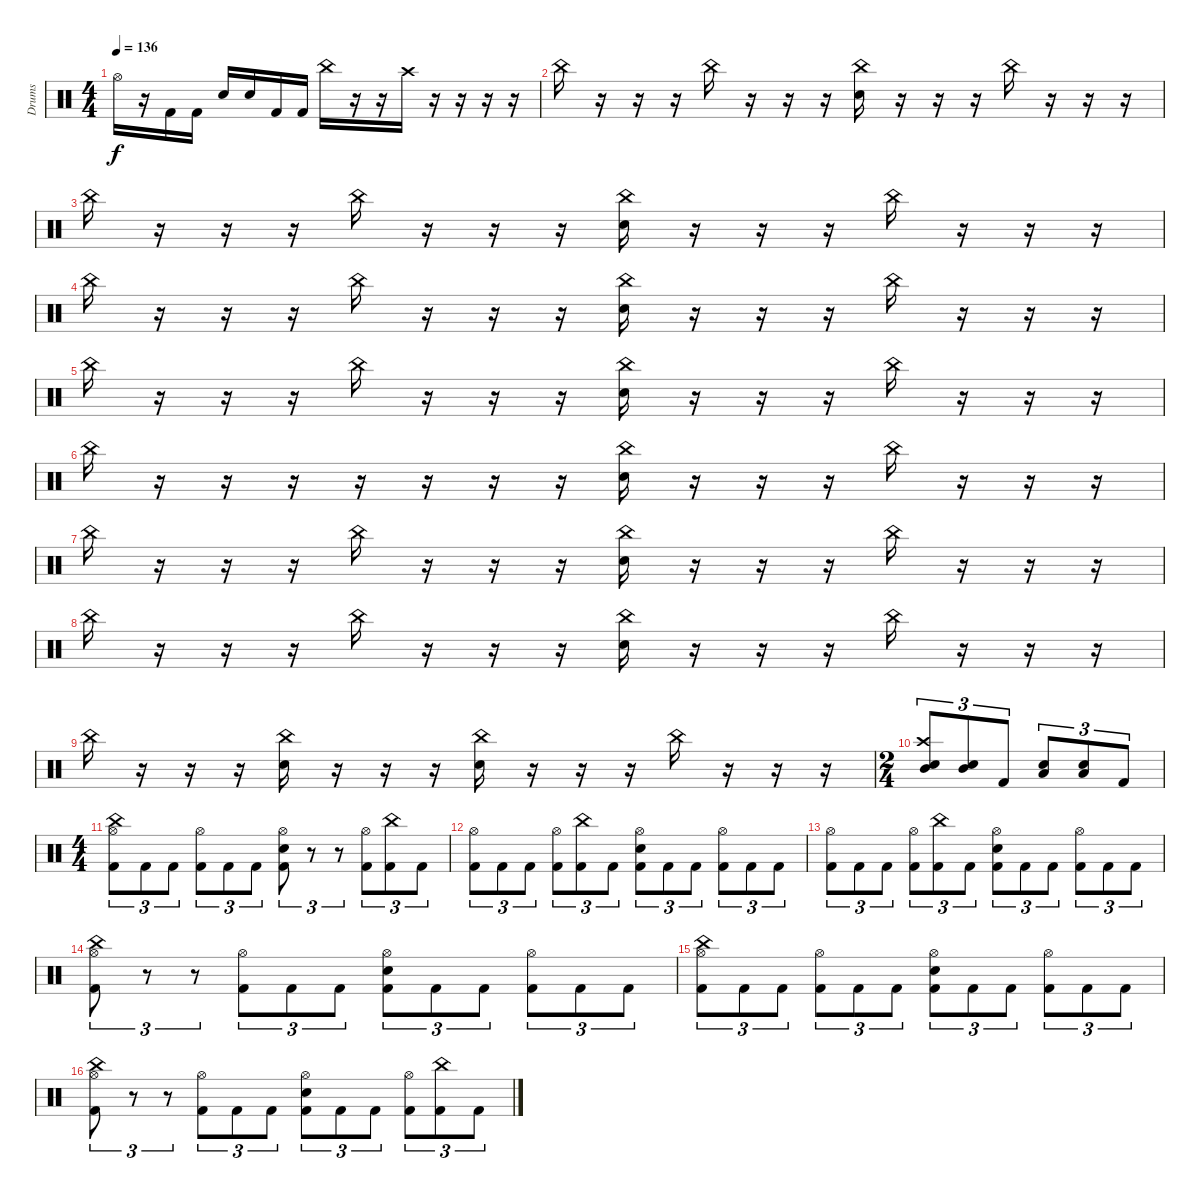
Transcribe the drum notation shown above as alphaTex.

\track ("Drums" "Drums") {instrument percussion}
\staff {score}
\articulation defaults
\ts (4 4)
\tempo 136
\clef neutral
\ks c "Hi-Hat (open)".16{dy f}
r.16 "Kick (hit) 2".16 "Kick (hit) 2".16 "Electric Snare (hit)".16 "Electric Snare (hit)".16 "Kick (hit) 2".16 "Kick (hit) 2".16 "China (hit)".16 r.16 r.16 "Crash high (hit)".16 r.16 r.16 r.16 r.16 |
"China (hit)".16 r.16 r.16 r.16 "China (hit)".16 r.16 r.16 r.16 ("China (hit)" "Electric Snare (hit)").16 r.16 r.16 r.16 "China (hit)".16 r.16 r.16 r.16 |
"China (hit)".16 r.16 r.16 r.16 "China (hit)".16 r.16 r.16 r.16 ("China (hit)" "Electric Snare (hit)").16 r.16 r.16 r.16 "China (hit)".16 r.16 r.16 r.16 |
"China (hit)".16 r.16 r.16 r.16 "China (hit)".16 r.16 r.16 r.16 ("China (hit)" "Electric Snare (hit)").16 r.16 r.16 r.16 "China (hit)".16 r.16 r.16 r.16 |
"China (hit)".16 r.16 r.16 r.16 "China (hit)".16 r.16 r.16 r.16 ("China (hit)" "Electric Snare (hit)").16 r.16 r.16 r.16 "China (hit)".16 r.16 r.16 r.16 |
"China (hit)".16 r.16 r.16 r.16 r.16 r.16 r.16 r.16 ("China (hit)" "Electric Snare (hit)").16 r.16 r.16 r.16 "China (hit)".16 r.16 r.16 r.16 |
"China (hit)".16 r.16 r.16 r.16 "China (hit)".16 r.16 r.16 r.16 ("China (hit)" "Electric Snare (hit)").16 r.16 r.16 r.16 "China (hit)".16 r.16 r.16 r.16 |
"China (hit)".16 r.16 r.16 r.16 "China (hit)".16 r.16 r.16 r.16 ("China (hit)" "Electric Snare (hit)").16 r.16 r.16 r.16 "China (hit)".16 r.16 r.16 r.16 |
"China (hit)".16 r.16 r.16 r.16 ("China (hit)" "Electric Snare (hit)").16 r.16 r.16 r.16 ("China (hit)" "Electric Snare (hit)").16 r.16 r.16 r.16 "China (hit)".16 r.16 r.16 r.16 |
\ts (2 4)
("Crash high (hit)" "Mid Tom (hit)" "Electric Snare (hit)").8{tu (3 2)} ("Mid Tom (hit)" "Electric Snare (hit)").8{tu (3 2)} "Kick (hit) 2".8{tu (3 2)} ("Low Tom (hit)" "Electric Snare (hit)").8{tu (3 2)} ("Low Tom (hit)" "Electric Snare (hit)").8{tu (3 2)} "Kick (hit) 2".8{tu (3 2)} |
\ts (4 4)
("China (hit)" "Hi-Hat (open)" "Kick (hit) 2").8{tu (3 2)} "Kick (hit) 2".8{tu (3 2)} "Kick (hit) 2".8{tu (3 2)} ("Hi-Hat (open)" "Kick (hit) 2").8{tu (3 2)} "Kick (hit) 2".8{tu (3 2)} "Kick (hit) 2".8{tu (3 2)} ("Hi-Hat (open)" "Electric Snare (hit)" "Kick (hit) 2").8{tu (3 2)} r.8{tu (3 2)} r.8{tu (3 2)} ("Hi-Hat (open)" "Kick (hit) 2").8{tu (3 2)} ("China (hit)" "Kick (hit) 2").8{tu (3 2)} "Kick (hit) 2".8{tu (3 2)} |
("Hi-Hat (open)" "Kick (hit) 2").8{tu (3 2)} "Kick (hit) 2".8{tu (3 2)} "Kick (hit) 2".8{tu (3 2)} ("Hi-Hat (open)" "Kick (hit) 2").8{tu (3 2)} ("China (hit)" "Kick (hit) 2").8{tu (3 2)} "Kick (hit) 2".8{tu (3 2)} ("Hi-Hat (open)" "Electric Snare (hit)" "Kick (hit) 2").8{tu (3 2)} "Kick (hit) 2".8{tu (3 2)} "Kick (hit) 2".8{tu (3 2)} ("Hi-Hat (open)" "Kick (hit) 2").8{tu (3 2)} "Kick (hit) 2".8{tu (3 2)} "Kick (hit) 2".8{tu (3 2)} |
("Hi-Hat (open)" "Kick (hit) 2").8{tu (3 2)} "Kick (hit) 2".8{tu (3 2)} "Kick (hit) 2".8{tu (3 2)} ("Hi-Hat (open)" "Kick (hit) 2").8{tu (3 2)} ("China (hit)" "Kick (hit) 2").8{tu (3 2)} "Kick (hit) 2".8{tu (3 2)} ("Hi-Hat (open)" "Electric Snare (hit)" "Kick (hit) 2").8{tu (3 2)} "Kick (hit) 2".8{tu (3 2)} "Kick (hit) 2".8{tu (3 2)} ("Hi-Hat (open)" "Kick (hit) 2").8{tu (3 2)} "Kick (hit) 2".8{tu (3 2)} "Kick (hit) 2".8{tu (3 2)} |
("China (hit)" "Hi-Hat (open)" "Kick (hit) 2").8{tu (3 2)} r.8{tu (3 2)} r.8{tu (3 2)} ("Hi-Hat (open)" "Kick (hit) 2").8{tu (3 2)} "Kick (hit) 2".8{tu (3 2)} "Kick (hit) 2".8{tu (3 2)} ("Hi-Hat (open)" "Electric Snare (hit)" "Kick (hit) 2").8{tu (3 2)} "Kick (hit) 2".8{tu (3 2)} "Kick (hit) 2".8{tu (3 2)} ("Hi-Hat (open)" "Kick (hit) 2").8{tu (3 2)} "Kick (hit) 2".8{tu (3 2)} "Kick (hit) 2".8{tu (3 2)} |
("China (hit)" "Hi-Hat (open)" "Kick (hit) 2").8{tu (3 2)} "Kick (hit) 2".8{tu (3 2)} "Kick (hit) 2".8{tu (3 2)} ("Hi-Hat (open)" "Kick (hit) 2").8{tu (3 2)} "Kick (hit) 2".8{tu (3 2)} "Kick (hit) 2".8{tu (3 2)} ("Hi-Hat (open)" "Electric Snare (hit)" "Kick (hit) 2").8{tu (3 2)} "Kick (hit) 2".8{tu (3 2)} "Kick (hit) 2".8{tu (3 2)} ("Hi-Hat (open)" "Kick (hit) 2").8{tu (3 2)} "Kick (hit) 2".8{tu (3 2)} "Kick (hit) 2".8{tu (3 2)} |
("China (hit)" "Hi-Hat (open)" "Kick (hit) 2").8{tu (3 2)} r.8{tu (3 2)} r.8{tu (3 2)} ("Hi-Hat (open)" "Kick (hit) 2").8{tu (3 2)} "Kick (hit) 2".8{tu (3 2)} "Kick (hit) 2".8{tu (3 2)} ("Hi-Hat (open)" "Electric Snare (hit)" "Kick (hit) 2").8{tu (3 2)} "Kick (hit) 2".8{tu (3 2)} "Kick (hit) 2".8{tu (3 2)} ("Hi-Hat (open)" "Kick (hit) 2").8{tu (3 2)} ("China (hit)" "Kick (hit) 2").8{tu (3 2)} "Kick (hit) 2".8{tu (3 2)}
